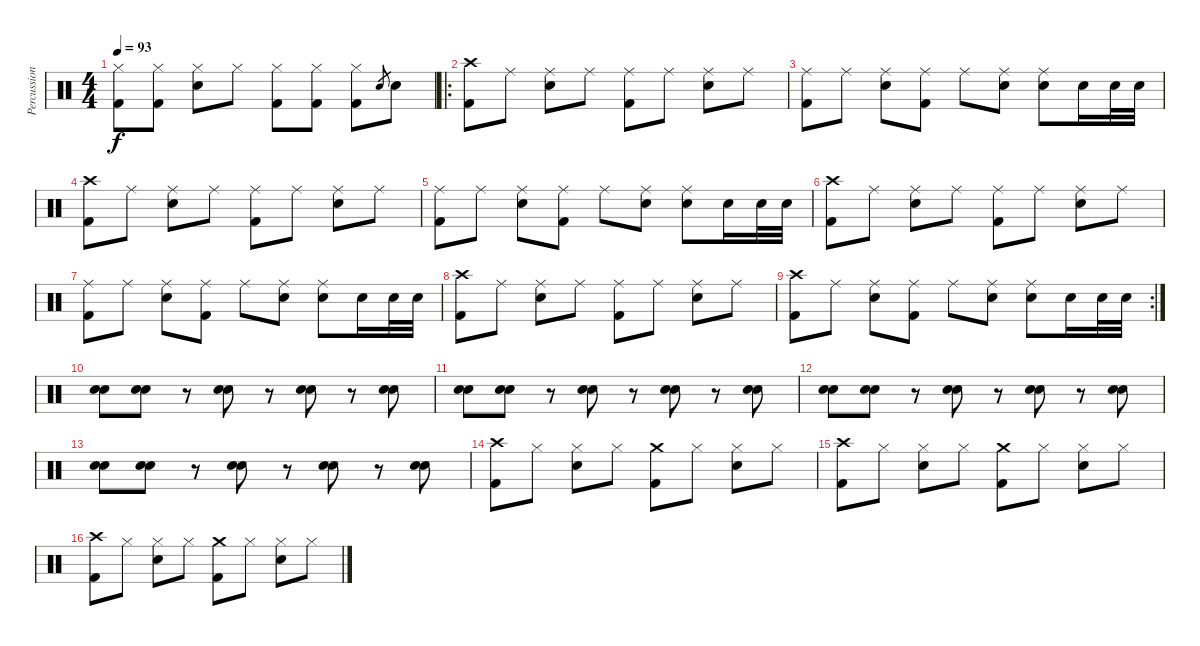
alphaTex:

\track ("Percussioni" "Percussion") {instrument percussion}
\staff {score}
\articulation defaults
\ts (4 4)
\tempo 93
\clef neutral
\ks c
("Hi-Hat (closed)" "Kick (hit) 2").8{dy f} ("Hi-Hat (closed)" "Kick (hit) 2").8 ("Hi-Hat (closed)" "Snare (hit) 2").8 "Hi-Hat (closed)".8 ("Hi-Hat (closed)" "Kick (hit) 2").8 ("Hi-Hat (closed)" "Kick (hit) 2").8 ("Hi-Hat (closed)" "Kick (hit) 2").8 "Snare (hit) 2".8{gr} "Snare (hit) 2".8 |
\ro
("Crash high (hit)" "Kick (hit) 2").8 "Ride (middle)".8 ("Ride (middle)" "Snare (hit) 2").8 "Ride (middle)".8 ("Ride (middle)" "Kick (hit) 2").8 "Ride (middle)".8 ("Ride (middle)" "Snare (hit) 2").8 "Ride (middle)".8 |
("Ride (middle)" "Kick (hit) 2").8 "Ride (middle)".8 ("Ride (middle)" "Snare (hit) 2").8 ("Ride (middle)" "Kick (hit) 2").8 "Ride (middle)".8 ("Ride (middle)" "Snare (hit) 2").8 ("Ride (middle)" "Snare (hit) 2").8 "Snare (hit) 2".16 "Snare (hit) 2".32 "Snare (hit) 2".32 |
("Crash high (hit)" "Kick (hit) 2").8 "Ride (middle)".8 ("Ride (middle)" "Snare (hit) 2").8 "Ride (middle)".8 ("Ride (middle)" "Kick (hit) 2").8 "Ride (middle)".8 ("Ride (middle)" "Snare (hit) 2").8 "Ride (middle)".8 |
("Ride (middle)" "Kick (hit) 2").8 "Ride (middle)".8 ("Ride (middle)" "Snare (hit) 2").8 ("Ride (middle)" "Kick (hit) 2").8 "Ride (middle)".8 ("Ride (middle)" "Snare (hit) 2").8 ("Ride (middle)" "Snare (hit) 2").8 "Snare (hit) 2".16 "Snare (hit) 2".32 "Snare (hit) 2".32 |
("Crash high (hit)" "Kick (hit) 2").8 "Ride (middle)".8 ("Ride (middle)" "Snare (hit) 2").8 "Ride (middle)".8 ("Ride (middle)" "Kick (hit) 2").8 "Ride (middle)".8 ("Ride (middle)" "Snare (hit) 2").8 "Ride (middle)".8 |
("Ride (middle)" "Kick (hit) 2").8 "Ride (middle)".8 ("Ride (middle)" "Snare (hit) 2").8 ("Ride (middle)" "Kick (hit) 2").8 "Ride (middle)".8 ("Ride (middle)" "Snare (hit) 2").8 ("Ride (middle)" "Snare (hit) 2").8 "Snare (hit) 2".16 "Snare (hit) 2".32 "Snare (hit) 2".32 |
("Crash high (hit)" "Kick (hit) 2").8 "Ride (middle)".8 ("Ride (middle)" "Snare (hit) 2").8 "Ride (middle)".8 ("Ride (middle)" "Kick (hit) 2").8 "Ride (middle)".8 ("Ride (middle)" "Snare (hit) 2").8 "Ride (middle)".8 |
\rc 2
("Crash high (hit)" "Kick (hit) 2").8 "Ride (middle)".8 ("Ride (middle)" "Snare (hit) 2").8 ("Ride (middle)" "Kick (hit) 2").8 "Ride (middle)".8 ("Ride (middle)" "Snare (hit) 2").8 ("Ride (middle)" "Snare (hit) 2").8 "Snare (hit) 2".16 "Snare (hit) 2".32 "Snare (hit) 2".32 |
("Snare (hit) 2" "Snare (hit) 2").8 ("Snare (hit) 2" "Snare (hit) 2").8 r.8 ("Snare (hit) 2" "Snare (hit) 2").8 r.8 ("Snare (hit) 2" "Snare (hit) 2").8 r.8 ("Snare (hit) 2" "Snare (hit) 2").8 |
("Snare (hit) 2" "Snare (hit) 2").8 ("Snare (hit) 2" "Snare (hit) 2").8 r.8 ("Snare (hit) 2" "Snare (hit) 2").8 r.8 ("Snare (hit) 2" "Snare (hit) 2").8 r.8 ("Snare (hit) 2" "Snare (hit) 2").8 |
("Snare (hit) 2" "Snare (hit) 2").8 ("Snare (hit) 2" "Snare (hit) 2").8 r.8 ("Snare (hit) 2" "Snare (hit) 2").8 r.8 ("Snare (hit) 2" "Snare (hit) 2").8 r.8 ("Snare (hit) 2" "Snare (hit) 2").8 |
("Snare (hit) 2" "Snare (hit) 2").8 ("Snare (hit) 2" "Snare (hit) 2").8 r.8 ("Snare (hit) 2" "Snare (hit) 2").8 r.8 ("Snare (hit) 2" "Snare (hit) 2").8 r.8 ("Snare (hit) 2" "Snare (hit) 2").8 |
("Crash high (hit)" "Kick (hit) 2").8 "Hi-Hat (closed)".8 ("Hi-Hat (closed)" "Snare (hit) 2").8 "Hi-Hat (closed)".8 ("Crash medium (hit)" "Kick (hit) 2").8 "Hi-Hat (closed)".8 ("Hi-Hat (closed)" "Snare (hit) 2").8 "Hi-Hat (closed)".8 |
("Crash high (hit)" "Kick (hit) 2").8 "Hi-Hat (closed)".8 ("Hi-Hat (closed)" "Snare (hit) 2").8 "Hi-Hat (closed)".8 ("Crash medium (hit)" "Kick (hit) 2").8 "Hi-Hat (closed)".8 ("Hi-Hat (closed)" "Snare (hit) 2").8 "Hi-Hat (closed)".8 |
("Crash high (hit)" "Kick (hit) 2").8 "Hi-Hat (closed)".8 ("Hi-Hat (closed)" "Snare (hit) 2").8 "Hi-Hat (closed)".8 ("Crash medium (hit)" "Kick (hit) 2").8 "Hi-Hat (closed)".8 ("Hi-Hat (closed)" "Snare (hit) 2").8 "Hi-Hat (closed)".8
